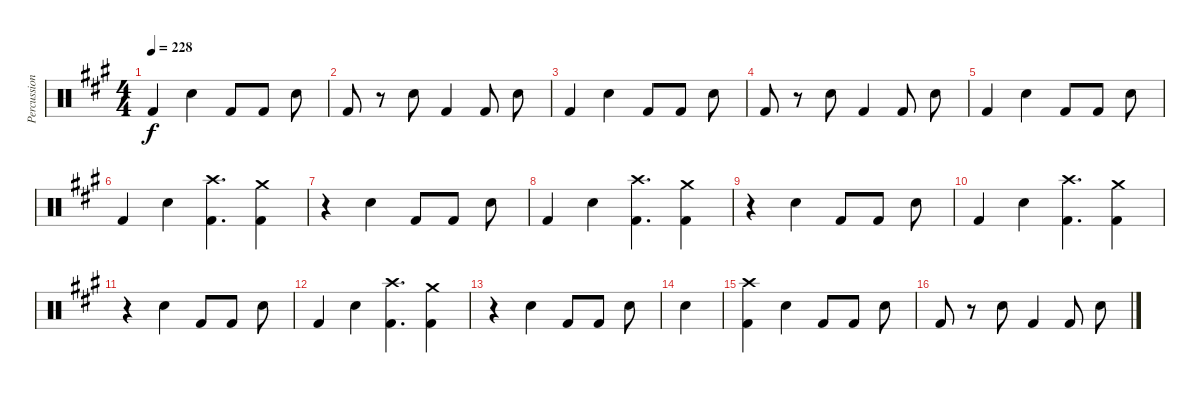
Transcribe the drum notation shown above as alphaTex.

\track ("Percussion" "Percussion") {instrument percussion}
\staff {score}
\articulation defaults
\ts (4 4)
\tempo 228
\clef neutral
\ks a "Kick (hit) 2".4{dy f} "Snare (hit) 2".4 "Kick (hit) 2".8 "Kick (hit) 2".8 "Snare (hit) 2".8
|
"Kick (hit) 2".8 r.8 "Snare (hit) 2".8 "Kick (hit) 2".4 "Kick (hit) 2".8 "Snare (hit) 2".8 |
"Kick (hit) 2".4 "Snare (hit) 2".4 "Kick (hit) 2".8 "Kick (hit) 2".8 "Snare (hit) 2".8 |
"Kick (hit) 2".8 r.8 "Snare (hit) 2".8 "Kick (hit) 2".4 "Kick (hit) 2".8 "Snare (hit) 2".8 |
"Kick (hit) 2".4 "Snare (hit) 2".4 "Kick (hit) 2".8 "Kick (hit) 2".8 "Snare (hit) 2".8 |
"Kick (hit) 2".4 "Snare (hit) 2".4 ("Crash high (hit)" "Kick (hit) 2").4{d} ("Crash medium (hit)" "Kick (hit) 2").4 |
r.4 "Snare (hit) 2".4 "Kick (hit) 2".8 "Kick (hit) 2".8 "Snare (hit) 2".8 |
"Kick (hit) 2".4 "Snare (hit) 2".4 ("Crash high (hit)" "Kick (hit) 2").4{d} ("Crash medium (hit)" "Kick (hit) 2").4 |
r.4 "Snare (hit) 2".4 "Kick (hit) 2".8 "Kick (hit) 2".8 "Snare (hit) 2".8 |
"Kick (hit) 2".4 "Snare (hit) 2".4 ("Crash high (hit)" "Kick (hit) 2").4{d} ("Crash medium (hit)" "Kick (hit) 2").4 |
r.4 "Snare (hit) 2".4 "Kick (hit) 2".8 "Kick (hit) 2".8 "Snare (hit) 2".8 |
"Kick (hit) 2".4 "Snare (hit) 2".4 ("Crash high (hit)" "Kick (hit) 2").4{d} ("Crash medium (hit)" "Kick (hit) 2").4 |
r.4 "Snare (hit) 2".4 "Kick (hit) 2".8 "Kick (hit) 2".8 "Snare (hit) 2".8 |
"Snare (hit) 2".4 |
("Kick (hit) 2" "Crash high (hit)").4 "Snare (hit) 2".4 "Kick (hit) 2".8 "Kick (hit) 2".8 "Snare (hit) 2".8 |
"Kick (hit) 2".8 r.8 "Snare (hit) 2".8 "Kick (hit) 2".4 "Kick (hit) 2".8 "Snare (hit) 2".8
